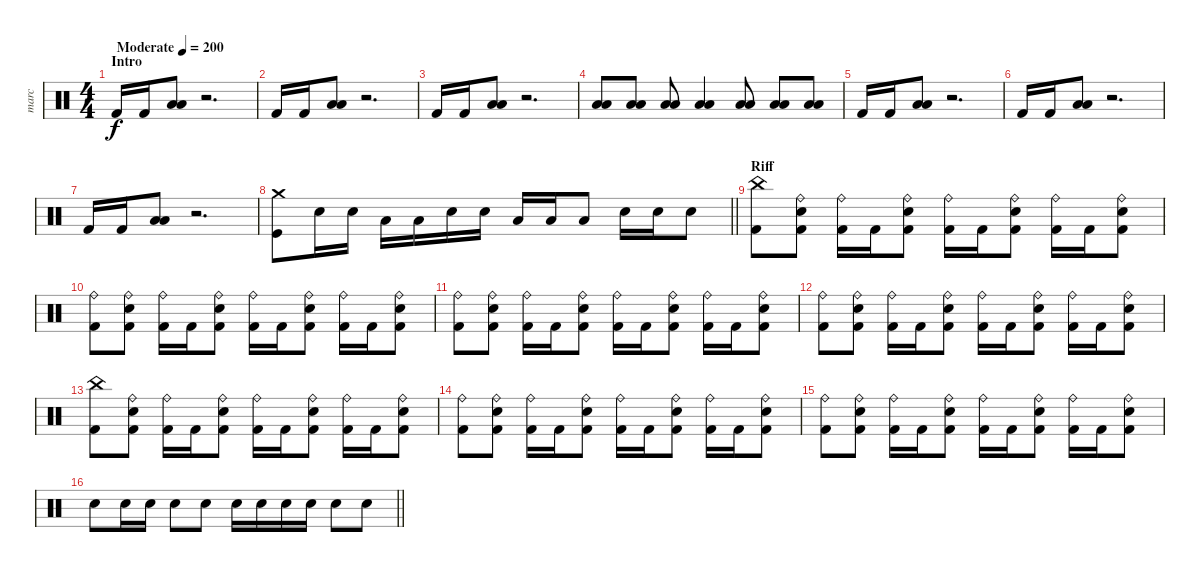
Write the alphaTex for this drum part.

\track ("marc" "marc") {instrument percussion}
\staff {score}
\articulation defaults
\ts (4 4)
\section ("" "Intro")
\tempo (200 "Moderate")
\clef neutral
\ks c "Kick (hit) 2".16{dy f} "Kick (hit) 2".16
("Low Floor Tom (hit)" "Low Tom (hit)").8 r.2{d} |
"Kick (hit) 2".16 "Kick (hit) 2".16 ("Low Floor Tom (hit)" "Low Tom (hit)").8 r.2{d} |
"Kick (hit) 2".16 "Kick (hit) 2".16 ("Low Floor Tom (hit)" "Low Tom (hit)").8 r.2{d} |
("Low Floor Tom (hit)" "Low Tom (hit)").8 ("Low Floor Tom (hit)" "Low Tom (hit)").8 ("Low Floor Tom (hit)" "Low Tom (hit)").8 ("Low Floor Tom (hit)" "Low Tom (hit)").4 ("Low Floor Tom (hit)" "Low Tom (hit)").8 ("Low Floor Tom (hit)" "Low Tom (hit)").8 ("Low Floor Tom (hit)" "Low Tom (hit)").8 |
"Kick (hit) 2".16 "Kick (hit) 2".16 ("Low Floor Tom (hit)" "Low Tom (hit)").8 r.2{d} |
"Kick (hit) 2".16 "Kick (hit) 2".16 ("Low Floor Tom (hit)" "Low Tom (hit)").8 r.2{d} |
"Kick (hit) 2".16 "Kick (hit) 2".16 ("Low Floor Tom (hit)" "Low Tom (hit)").8 r.2{d} |
\barLineRight lightlight
("Crash medium (hit)" "Kick (hit)").8 "Snare (hit) 2".16 "Snare (hit) 2".16 "Low Tom (hit)".16 "Low Tom (hit)".16 "Snare (hit) 2".16 "Snare (hit) 2".16 "Low Tom (hit)".16 "Low Tom (hit)".16 "Low Tom (hit)".8 "Snare (hit) 2".16 "Snare (hit) 2".16 "Snare (hit) 2".8 |
\section ("" "Riff")
("China (hit)" "Kick (hit) 2").8 ("Ride (bell)" "Snare (hit) 2" "Kick (hit) 2").8 ("Ride (bell)" "Kick (hit) 2").16 "Kick (hit) 2".16 ("Ride (bell)" "Snare (hit) 2" "Kick (hit) 2").8 ("Ride (bell)" "Kick (hit) 2").16 "Kick (hit) 2".16 ("Ride (bell)" "Snare (hit) 2" "Kick (hit) 2").8 ("Ride (bell)" "Kick (hit) 2").16 "Kick (hit) 2".16 ("Ride (bell)" "Snare (hit) 2" "Kick (hit) 2").8 |
("Ride (bell)" "Kick (hit) 2").8 ("Ride (bell)" "Snare (hit) 2" "Kick (hit) 2").8 ("Ride (bell)" "Kick (hit) 2").16 "Kick (hit) 2".16 ("Ride (bell)" "Snare (hit) 2" "Kick (hit) 2").8 ("Ride (bell)" "Kick (hit) 2").16 "Kick (hit) 2".16 ("Ride (bell)" "Snare (hit) 2" "Kick (hit) 2").8 ("Ride (bell)" "Kick (hit) 2").16 "Kick (hit) 2".16 ("Ride (bell)" "Snare (hit) 2" "Kick (hit) 2").8 |
("Ride (bell)" "Kick (hit) 2").8 ("Ride (bell)" "Snare (hit) 2" "Kick (hit) 2").8 ("Ride (bell)" "Kick (hit) 2").16 "Kick (hit) 2".16 ("Ride (bell)" "Snare (hit) 2" "Kick (hit) 2").8 ("Ride (bell)" "Kick (hit) 2").16 "Kick (hit) 2".16 ("Ride (bell)" "Snare (hit) 2" "Kick (hit) 2").8 ("Ride (bell)" "Kick (hit) 2").16 "Kick (hit) 2".16 ("Ride (bell)" "Snare (hit) 2" "Kick (hit) 2").8 |
("Ride (bell)" "Kick (hit) 2").8 ("Ride (bell)" "Snare (hit) 2" "Kick (hit) 2").8 ("Ride (bell)" "Kick (hit) 2").16 "Kick (hit) 2".16 ("Ride (bell)" "Snare (hit) 2" "Kick (hit) 2").8 ("Ride (bell)" "Kick (hit) 2").16 "Kick (hit) 2".16 ("Ride (bell)" "Snare (hit) 2" "Kick (hit) 2").8 ("Ride (bell)" "Kick (hit) 2").16 "Kick (hit) 2".16 ("Ride (bell)" "Snare (hit) 2" "Kick (hit) 2").8 |
("China (hit)" "Kick (hit) 2").8 ("Ride (bell)" "Snare (hit) 2" "Kick (hit) 2").8 ("Ride (bell)" "Kick (hit) 2").16 "Kick (hit) 2".16 ("Ride (bell)" "Snare (hit) 2" "Kick (hit) 2").8 ("Ride (bell)" "Kick (hit) 2").16 "Kick (hit) 2".16 ("Ride (bell)" "Snare (hit) 2" "Kick (hit) 2").8 ("Ride (bell)" "Kick (hit) 2").16 "Kick (hit) 2".16 ("Ride (bell)" "Snare (hit) 2" "Kick (hit) 2").8 |
("Ride (bell)" "Kick (hit) 2").8 ("Ride (bell)" "Snare (hit) 2" "Kick (hit) 2").8 ("Ride (bell)" "Kick (hit) 2").16 "Kick (hit) 2".16 ("Ride (bell)" "Snare (hit) 2" "Kick (hit) 2").8 ("Ride (bell)" "Kick (hit) 2").16 "Kick (hit) 2".16 ("Ride (bell)" "Snare (hit) 2" "Kick (hit) 2").8 ("Ride (bell)" "Kick (hit) 2").16 "Kick (hit) 2".16 ("Ride (bell)" "Snare (hit) 2" "Kick (hit) 2").8 |
("Ride (bell)" "Kick (hit) 2").8 ("Ride (bell)" "Snare (hit) 2" "Kick (hit) 2").8 ("Ride (bell)" "Kick (hit) 2").16 "Kick (hit) 2".16 ("Ride (bell)" "Snare (hit) 2" "Kick (hit) 2").8 ("Ride (bell)" "Kick (hit) 2").16 "Kick (hit) 2".16 ("Ride (bell)" "Snare (hit) 2" "Kick (hit) 2").8 ("Ride (bell)" "Kick (hit) 2").16 "Kick (hit) 2".16 ("Ride (bell)" "Snare (hit) 2" "Kick (hit) 2").8 |
\barLineRight lightlight "Snare (hit) 2".8 "Snare (hit) 2".16 "Snare (hit) 2".16 "Snare (hit) 2".8 "Snare (hit) 2".8 "Snare (hit) 2".16 "Snare (hit) 2".16 "Snare (hit) 2".16 "Snare (hit) 2".16 "Snare (hit) 2".8 "Snare (hit) 2".8
